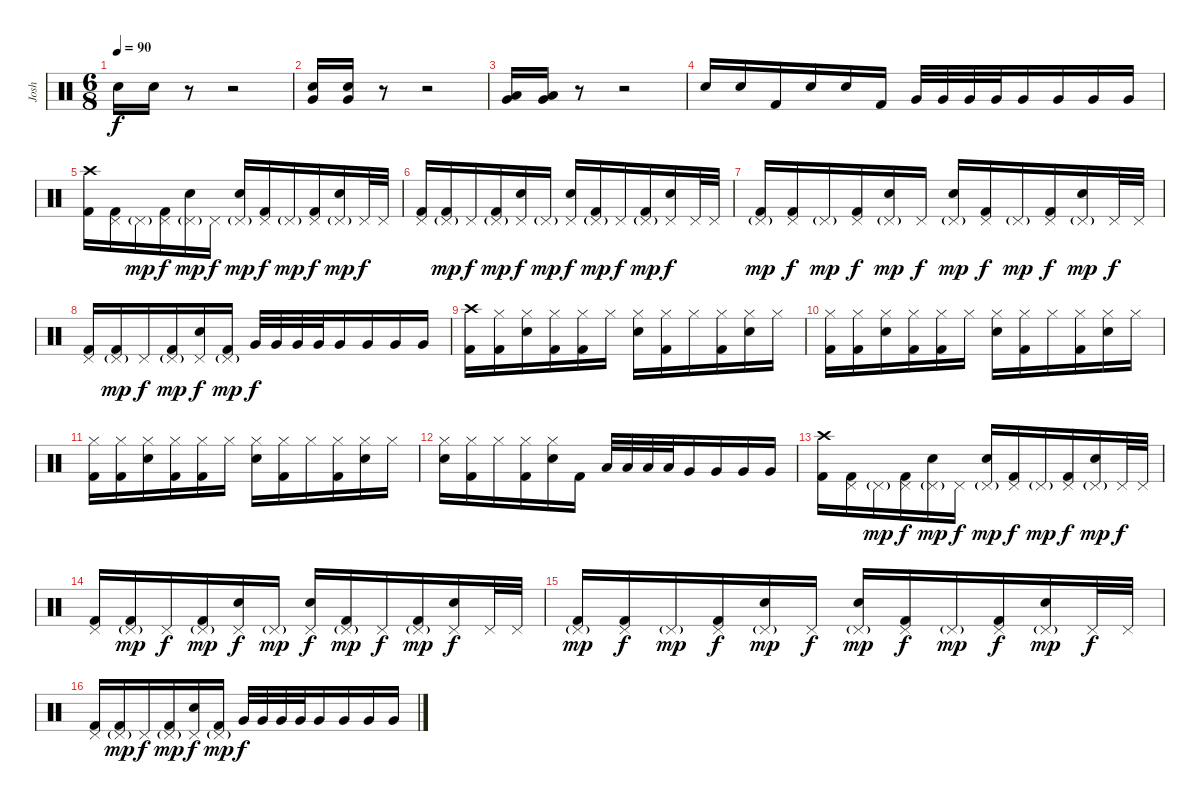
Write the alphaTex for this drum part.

\track ("Josh" "Josh") {instrument percussion}
\staff {score}
\articulation defaults
\ts (6 8)
\tempo 90
\clef neutral
\ks c "Electric Snare (hit)".16{dy f} "Electric Snare (hit)".16
r.8 r.2 |
("Very Low Tom (hit)" "Electric Snare (hit)").16 ("Very Low Tom (hit)" "Electric Snare (hit)").16 r.8 r.2 |
("Very Low Tom (hit)" "Low Tom (hit)").16 ("Very Low Tom (hit)" "Low Tom (hit)").16 r.8 r.2 |
"Electric Snare (hit)".16 "Electric Snare (hit)".16 "Kick (hit) 2".16 "Electric Snare (hit)".16 "Electric Snare (hit)".16 "Kick (hit) 2".16 "Very Low Tom (hit)".32 "Very Low Tom (hit)".32 "Very Low Tom (hit)".32 "Very Low Tom (hit)".32 "Very Low Tom (hit)".16 "Very Low Tom (hit)".16 "Very Low Tom (hit)".16 "Very Low Tom (hit)".16 |
("Crash high (hit)" "Kick (hit) 2").16 ("Pedal Hi-Hat (hit)" "Kick (hit) 2").16 "Pedal Hi-Hat (hit)"{g}.16{dy mp} ("Pedal Hi-Hat (hit)" "Kick (hit) 2").16{dy f} ("Pedal Hi-Hat (hit)"{g} "Electric Snare (hit)").16{dy mp} "Pedal Hi-Hat (hit)".16{dy f} ("Pedal Hi-Hat (hit)"{g} "Electric Snare (hit)").16{dy mp} ("Pedal Hi-Hat (hit)" "Kick (hit) 2").16{dy f} "Pedal Hi-Hat (hit)"{g}.16{dy mp} ("Pedal Hi-Hat (hit)" "Kick (hit) 2").16{dy f} ("Pedal Hi-Hat (hit)"{g} "Electric Snare (hit)").16{dy mp} "Pedal Hi-Hat (hit)".32{dy f} "Pedal Hi-Hat (hit)".32 |
("Pedal Hi-Hat (hit)" "Kick (hit) 2").16 ("Pedal Hi-Hat (hit)"{g} "Kick (hit) 2").16{dy mp} "Pedal Hi-Hat (hit)".16{dy f} ("Pedal Hi-Hat (hit)"{g} "Kick (hit) 2").16{dy mp} ("Pedal Hi-Hat (hit)" "Electric Snare (hit)").16{dy f} "Pedal Hi-Hat (hit)"{g}.16{dy mp} ("Pedal Hi-Hat (hit)" "Electric Snare (hit)").16{dy f} ("Pedal Hi-Hat (hit)"{g} "Kick (hit) 2").16{dy mp} "Pedal Hi-Hat (hit)".16{dy f} ("Pedal Hi-Hat (hit)"{g} "Kick (hit) 2").16{dy mp} ("Pedal Hi-Hat (hit)" "Electric Snare (hit)").16{dy f} "Pedal Hi-Hat (hit)".32 "Pedal Hi-Hat (hit)".32 |
("Pedal Hi-Hat (hit)"{g} "Kick (hit) 2").16{dy mp} ("Pedal Hi-Hat (hit)" "Kick (hit) 2").16{dy f} "Pedal Hi-Hat (hit)"{g}.16{dy mp} ("Pedal Hi-Hat (hit)" "Kick (hit) 2").16{dy f} ("Pedal Hi-Hat (hit)"{g} "Electric Snare (hit)").16{dy mp} "Pedal Hi-Hat (hit)".16{dy f} ("Pedal Hi-Hat (hit)"{g} "Electric Snare (hit)").16{dy mp} ("Pedal Hi-Hat (hit)" "Kick (hit) 2").16{dy f} "Pedal Hi-Hat (hit)"{g}.16{dy mp} ("Pedal Hi-Hat (hit)" "Kick (hit) 2").16{dy f} ("Pedal Hi-Hat (hit)"{g} "Electric Snare (hit)").16{dy mp} "Pedal Hi-Hat (hit)".32{dy f} "Pedal Hi-Hat (hit)".32 |
("Pedal Hi-Hat (hit)" "Kick (hit) 2").16 ("Pedal Hi-Hat (hit)"{g} "Kick (hit) 2").16{dy mp} "Pedal Hi-Hat (hit)".16{dy f} ("Pedal Hi-Hat (hit)"{g} "Kick (hit) 2").16{dy mp} ("Pedal Hi-Hat (hit)" "Electric Snare (hit)").16{dy f} ("Pedal Hi-Hat (hit)"{g} "Kick (hit) 2").16{dy mp} "Very Low Tom (hit)".32{dy f} "Very Low Tom (hit)".32 "Very Low Tom (hit)".32 "Very Low Tom (hit)".32 "Very Low Tom (hit)".16 "Very Low Tom (hit)".16 "Very Low Tom (hit)".16 "Very Low Tom (hit)".16 |
("Crash high (hit)" "Kick (hit) 2").16 ("Hi-Hat (closed)" "Kick (hit) 2").16 ("Hi-Hat (closed)" "Electric Snare (hit)").16 ("Hi-Hat (closed)" "Kick (hit) 2").16 ("Hi-Hat (closed)" "Kick (hit) 2").16 "Hi-Hat (closed)".16 ("Hi-Hat (closed)" "Electric Snare (hit)").16 ("Hi-Hat (closed)" "Kick (hit) 2").16 "Hi-Hat (closed)".16 ("Hi-Hat (closed)" "Kick (hit) 2").16 ("Hi-Hat (closed)" "Electric Snare (hit)").16 "Hi-Hat (closed)".16 |
("Hi-Hat (closed)" "Kick (hit) 2").16 ("Hi-Hat (closed)" "Kick (hit) 2").16 ("Hi-Hat (closed)" "Electric Snare (hit)").16 ("Hi-Hat (closed)" "Kick (hit) 2").16 ("Hi-Hat (closed)" "Kick (hit) 2").16 "Hi-Hat (closed)".16 ("Hi-Hat (closed)" "Electric Snare (hit)").16 ("Hi-Hat (closed)" "Kick (hit) 2").16 "Hi-Hat (closed)".16 ("Hi-Hat (closed)" "Kick (hit) 2").16 ("Hi-Hat (closed)" "Electric Snare (hit)").16 "Hi-Hat (closed)".16 |
("Hi-Hat (closed)" "Kick (hit) 2").16 ("Hi-Hat (closed)" "Kick (hit) 2").16 ("Hi-Hat (closed)" "Electric Snare (hit)").16 ("Hi-Hat (closed)" "Kick (hit) 2").16 ("Hi-Hat (closed)" "Kick (hit) 2").16 "Hi-Hat (closed)".16 ("Hi-Hat (closed)" "Electric Snare (hit)").16 ("Hi-Hat (closed)" "Kick (hit) 2").16 "Hi-Hat (closed)".16 ("Hi-Hat (closed)" "Kick (hit) 2").16 ("Hi-Hat (closed)" "Electric Snare (hit)").16 "Hi-Hat (closed)".16 |
("Hi-Hat (closed)" "Electric Snare (hit)").16 ("Hi-Hat (closed)" "Kick (hit) 2").16 "Hi-Hat (closed)".16 ("Hi-Hat (closed)" "Kick (hit) 2").16 ("Hi-Hat (closed)" "Electric Snare (hit)").16 "Kick (hit) 2".16 "Low Tom (hit)".32 "Low Tom (hit)".32 "Low Tom (hit)".32 "Low Tom (hit)".32 "Very Low Tom (hit)".16 "Very Low Tom (hit)".16 "Very Low Tom (hit)".16 "Very Low Tom (hit)".16 |
("Crash high (hit)" "Kick (hit) 2").16 ("Pedal Hi-Hat (hit)" "Kick (hit) 2").16 "Pedal Hi-Hat (hit)"{g}.16{dy mp} ("Pedal Hi-Hat (hit)" "Kick (hit) 2").16{dy f} ("Pedal Hi-Hat (hit)"{g} "Electric Snare (hit)").16{dy mp} "Pedal Hi-Hat (hit)".16{dy f} ("Pedal Hi-Hat (hit)"{g} "Electric Snare (hit)").16{dy mp} ("Pedal Hi-Hat (hit)" "Kick (hit) 2").16{dy f} "Pedal Hi-Hat (hit)"{g}.16{dy mp} ("Pedal Hi-Hat (hit)" "Kick (hit) 2").16{dy f} ("Pedal Hi-Hat (hit)"{g} "Electric Snare (hit)").16{dy mp} "Pedal Hi-Hat (hit)".32{dy f} "Pedal Hi-Hat (hit)".32 |
("Pedal Hi-Hat (hit)" "Kick (hit) 2").16 ("Pedal Hi-Hat (hit)"{g} "Kick (hit) 2").16{dy mp} "Pedal Hi-Hat (hit)".16{dy f} ("Pedal Hi-Hat (hit)"{g} "Kick (hit) 2").16{dy mp} ("Pedal Hi-Hat (hit)" "Electric Snare (hit)").16{dy f} "Pedal Hi-Hat (hit)"{g}.16{dy mp} ("Pedal Hi-Hat (hit)" "Electric Snare (hit)").16{dy f} ("Pedal Hi-Hat (hit)"{g} "Kick (hit) 2").16{dy mp} "Pedal Hi-Hat (hit)".16{dy f} ("Pedal Hi-Hat (hit)"{g} "Kick (hit) 2").16{dy mp} ("Pedal Hi-Hat (hit)" "Electric Snare (hit)").16{dy f} "Pedal Hi-Hat (hit)".32 "Pedal Hi-Hat (hit)".32 |
("Pedal Hi-Hat (hit)"{g} "Kick (hit) 2").16{dy mp} ("Pedal Hi-Hat (hit)" "Kick (hit) 2").16{dy f} "Pedal Hi-Hat (hit)"{g}.16{dy mp} ("Pedal Hi-Hat (hit)" "Kick (hit) 2").16{dy f} ("Pedal Hi-Hat (hit)"{g} "Electric Snare (hit)").16{dy mp} "Pedal Hi-Hat (hit)".16{dy f} ("Pedal Hi-Hat (hit)"{g} "Electric Snare (hit)").16{dy mp} ("Pedal Hi-Hat (hit)" "Kick (hit) 2").16{dy f} "Pedal Hi-Hat (hit)"{g}.16{dy mp} ("Pedal Hi-Hat (hit)" "Kick (hit) 2").16{dy f} ("Pedal Hi-Hat (hit)"{g} "Electric Snare (hit)").16{dy mp} "Pedal Hi-Hat (hit)".32{dy f} "Pedal Hi-Hat (hit)".32 |
("Pedal Hi-Hat (hit)" "Kick (hit) 2").16 ("Pedal Hi-Hat (hit)"{g} "Kick (hit) 2").16{dy mp} "Pedal Hi-Hat (hit)".16{dy f} ("Pedal Hi-Hat (hit)"{g} "Kick (hit) 2").16{dy mp} ("Pedal Hi-Hat (hit)" "Electric Snare (hit)").16{dy f} ("Pedal Hi-Hat (hit)"{g} "Kick (hit) 2").16{dy mp} "Very Low Tom (hit)".32{dy f} "Very Low Tom (hit)".32 "Very Low Tom (hit)".32 "Very Low Tom (hit)".32 "Very Low Tom (hit)".16 "Very Low Tom (hit)".16 "Very Low Tom (hit)".16 "Very Low Tom (hit)".16
